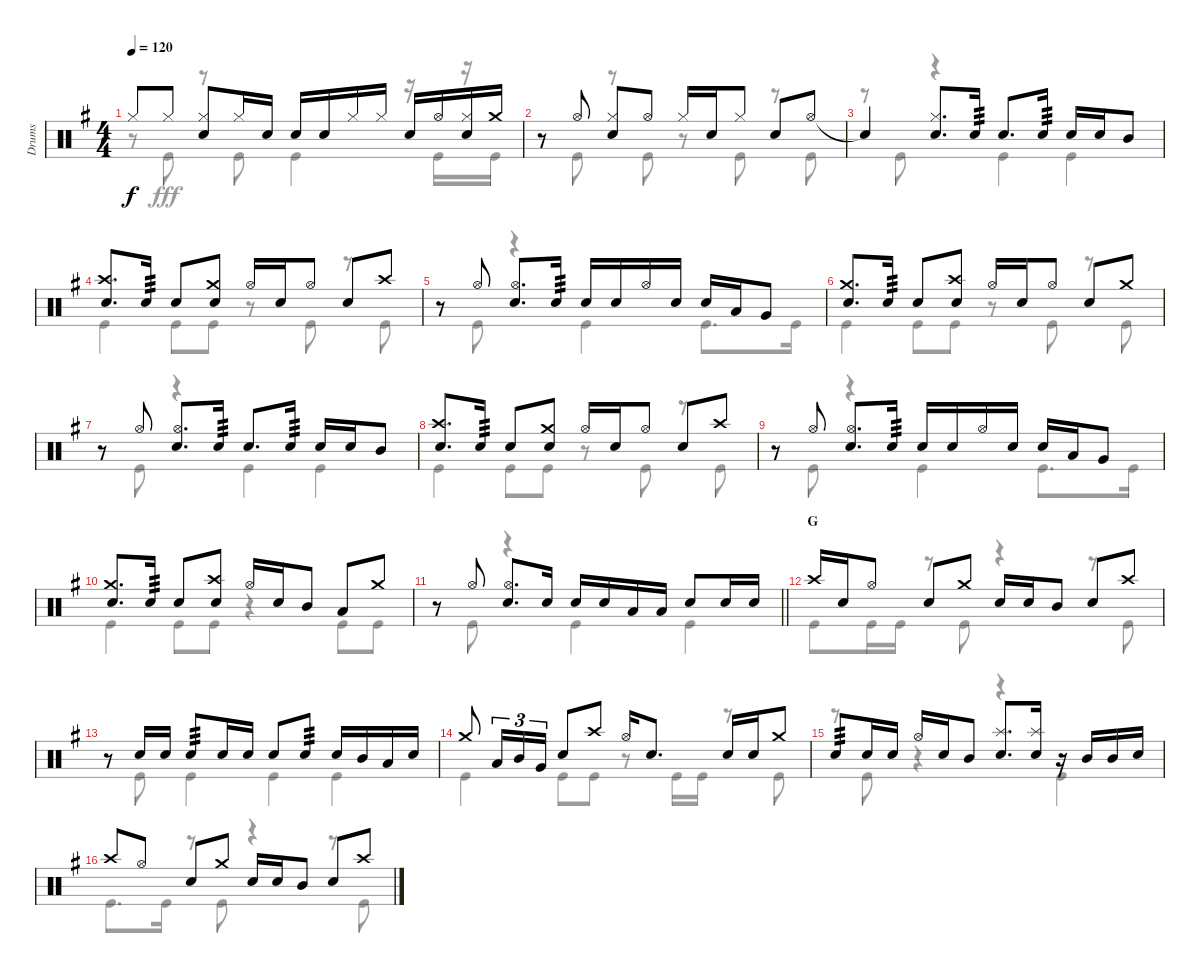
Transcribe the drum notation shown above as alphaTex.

\track ("Drums" "Drums") {instrument percussion}
\staff {score}
\articulation defaults
\voice
\ts (4 4)
\tempo 120
\clef neutral
\ks g "Hi-Hat (closed)".8{dy f} "Hi-Hat (closed)".8
("Hi-Hat (closed)" "Snare (hit) 2").8 "Hi-Hat (closed)".16 "Snare (hit) 2".16 "Snare (hit) 2".16 "Snare (hit) 2".16 "Hi-Hat (closed)".16 "Hi-Hat (closed)".16 "Snare (hit) 2".16 "Hi-Hat (open)".16 ("Hi-Hat (closed)" "Snare (hit) 2").16 "Crash medium (hit)".16 |
r.8 "Hi-Hat (open)".8 ("Hi-Hat (closed)" "Snare (hit) 2").8 "Hi-Hat (open)".8 "Hi-Hat (closed)".16 "Snare (hit) 2".16 "Hi-Hat (closed)".8 "Snare (hit) 2".8 "Hi-Hat (open)".8 |
"Snare (hit)"{t}.4 ("Hi-Hat (closed)" "Snare (hit) 2").8{d} "Snare (hit) 2".16{tp 3} "Snare (hit) 2".8{d} "Snare (hit) 2".16{tp 3} "Snare (hit) 2".16 "Snare (hit) 2".16 "Mid Tom (hit)".8 |
("Crash high (hit)" "Snare (hit) 2").8{d} "Snare (hit) 2".16{tp 3} "Snare (hit) 2".8 ("Crash medium (hit)" "Snare (hit) 2").8 "Hi-Hat (open)".16 "Snare (hit) 2".16 "Hi-Hat (open)".8 "Snare (hit) 2".8 "Crash high (hit)".8 |
r.8 "Hi-Hat (open)".8 ("Hi-Hat (open)" "Snare (hit) 2").8{d} "Snare (hit) 2".16{tp 3} "Snare (hit) 2".16 "Snare (hit) 2".16 "Hi-Hat (open)".16 "Snare (hit) 2".16 "Snare (hit) 2".16 "Low Tom (hit)".16 "Very Low Tom (hit)".8 |
("Crash medium (hit)" "Snare (hit) 2").8{d} "Snare (hit) 2".16{tp 3} "Snare (hit) 2".8 ("Crash high (hit)" "Snare (hit) 2").8 "Hi-Hat (open)".16 "Snare (hit) 2".16 "Hi-Hat (open)".8 "Snare (hit) 2".8 "Crash medium (hit)".8 |
r.8 "Hi-Hat (open)".8 ("Hi-Hat (open)" "Snare (hit) 2").8{d} "Snare (hit) 2".16{tp 3} "Snare (hit) 2".8{d} "Snare (hit) 2".16{tp 3} "Snare (hit) 2".16 "Snare (hit) 2".16 "Mid Tom (hit)".8 |
("Crash high (hit)" "Snare (hit) 2").8{d} "Snare (hit) 2".16{tp 3} "Snare (hit) 2".8 ("Crash medium (hit)" "Snare (hit) 2").8 "Hi-Hat (open)".16 "Snare (hit) 2".16 "Hi-Hat (open)".8 "Snare (hit) 2".8 "Crash high (hit)".8 |
r.8 "Hi-Hat (open)".8 ("Hi-Hat (open)" "Snare (hit) 2").8{d} "Snare (hit) 2".16{tp 3} "Snare (hit) 2".16 "Snare (hit) 2".16 "Hi-Hat (open)".16 "Snare (hit) 2".16 "Snare (hit) 2".16 "Low Tom (hit)".16 "Very Low Tom (hit)".8 |
("Crash medium (hit)" "Snare (hit) 2").8{d} "Snare (hit) 2".16{tp 3} "Snare (hit) 2".8 ("Crash high (hit)" "Snare (hit) 2").8 "Hi-Hat (open)".16 "Snare (hit) 2".16 "Mid Tom (hit)".8 "Low Tom (hit)".8 "Crash medium (hit)".8 |
\barLineRight lightlight
r.8 "Hi-Hat (open)".8 ("Hi-Hat (open)" "Snare (hit) 2").8{d} "Snare (hit) 2".16 "Snare (hit) 2".16 "Snare (hit) 2".16 "Low Tom (hit)".16 "Low Tom (hit)".16 "Snare (hit) 2".8 "Snare (hit) 2".16 "Snare (hit) 2".16 |
\section ("" "G")
"Crash high (hit)".16 "Snare (hit) 2".16 "Hi-Hat (open)".8 "Snare (hit) 2".8 "Crash medium (hit)".8 "Snare (hit) 2".16 "Snare (hit) 2".16 "Mid Tom (hit)".8 "Snare (hit) 2".8 "Crash high (hit)".8 |
r.8 "Snare (hit) 2".16 "Snare (hit) 2".16 "Snare (hit) 2".8{tp 3} "Snare (hit) 2".16 "Snare (hit) 2".16 "Snare (hit) 2".8 "Snare (hit) 2".8{tp 3} "Snare (hit) 2".16 "Mid Tom (hit)".16 "Low Tom (hit)".16 "Snare (hit) 2".16 |
"Crash medium (hit)".8 "Low Tom (hit)".16{tu (3 2)} "Mid Tom (hit)".16{tu (3 2)} "Very Low Tom (hit)".16{tu (3 2)} "Snare (hit) 2".8 "Crash high (hit)".8 "Hi-Hat (open)".16 "Snare (hit) 2".8{d} "Snare (hit) 2".16 "Snare (hit) 2".16 "Crash medium (hit)".8 |
"Snare (hit) 2".8{tp 3} "Snare (hit) 2".16 "Snare (hit) 2".16 "Hi-Hat (open)".16 "Snare (hit) 2".16 "Mid Tom (hit)".8 ("Splash (hit)" "Snare (hit) 2").8{d} ("Splash (hit)" "Snare (hit) 2").16 r.16 "Mid Tom (hit)".16 "Mid Tom (hit)".16 "Snare (hit) 2".16 |
"Crash high (hit)".8 "Hi-Hat (open)".8 "Snare (hit) 2".8 "Crash medium (hit)".8 "Snare (hit) 2".16 "Snare (hit) 2".16 "Mid Tom (hit)".8 "Snare (hit) 2".8 "Crash high (hit)".8
\voice
\clef neutral
\ottava regular
\simile none
\ks g
r.8{dy fff} "Kick (hit)".8 r.8 "Kick (hit)".8 "Kick (hit)".4 r.16 "Kick (hit)".16 r.16 "Kick (hit)".16 |
r.8 "Kick (hit)".8 r.8 "Kick (hit)".8 r.8 "Kick (hit)".8 r.8 "Kick (hit)".8 |
r.8 "Kick (hit)".8 r.4 "Kick (hit)".4 "Kick (hit)".4 |
"Kick (hit)".4 "Kick (hit)".8 "Kick (hit)".8 r.8 "Kick (hit)".8 r.8 "Kick (hit)".8 |
r.8 "Kick (hit)".8 r.4 "Kick (hit)".4 "Kick (hit)".8{d} "Kick (hit)".16 |
"Kick (hit)".4 "Kick (hit)".8 "Kick (hit)".8 r.8 "Kick (hit)".8 r.8 "Kick (hit)".8 |
r.8 "Kick (hit)".8 r.4 "Kick (hit)".4 "Kick (hit)".4 |
"Kick (hit)".4 "Kick (hit)".8 "Kick (hit)".8 r.8 "Kick (hit)".8 r.8 "Kick (hit)".8 |
r.8 "Kick (hit)".8 r.4 "Kick (hit)".4 "Kick (hit)".8{d} "Kick (hit)".16 |
"Kick (hit)".4 "Kick (hit)".8 "Kick (hit)".8 r.4 "Kick (hit)".8 "Kick (hit)".8 |
\barLineRight lightlight
r.8 "Kick (hit)".8 r.4 "Kick (hit)".4 "Kick (hit)".4 |
"Kick (hit)".8 "Kick (hit)".16 "Kick (hit)".16 r.8 "Kick (hit)".8 r.4 r.8 "Kick (hit)".8 |
r.8 "Kick (hit)".8 "Kick (hit)".4 "Kick (hit)".4 "Kick (hit)".4 |
"Kick (hit)".4 "Kick (hit)".8 "Kick (hit)".8 r.8 "Kick (hit)".16 "Kick (hit)".16 r.8 "Kick (hit)".8 |
r.8 "Kick (hit)".8 r.4 r.4 "Kick (hit)".4 |
"Kick (hit)".8{d} "Kick (hit)".16 r.8 "Kick (hit)".8 r.4 r.8 "Kick (hit)".8
